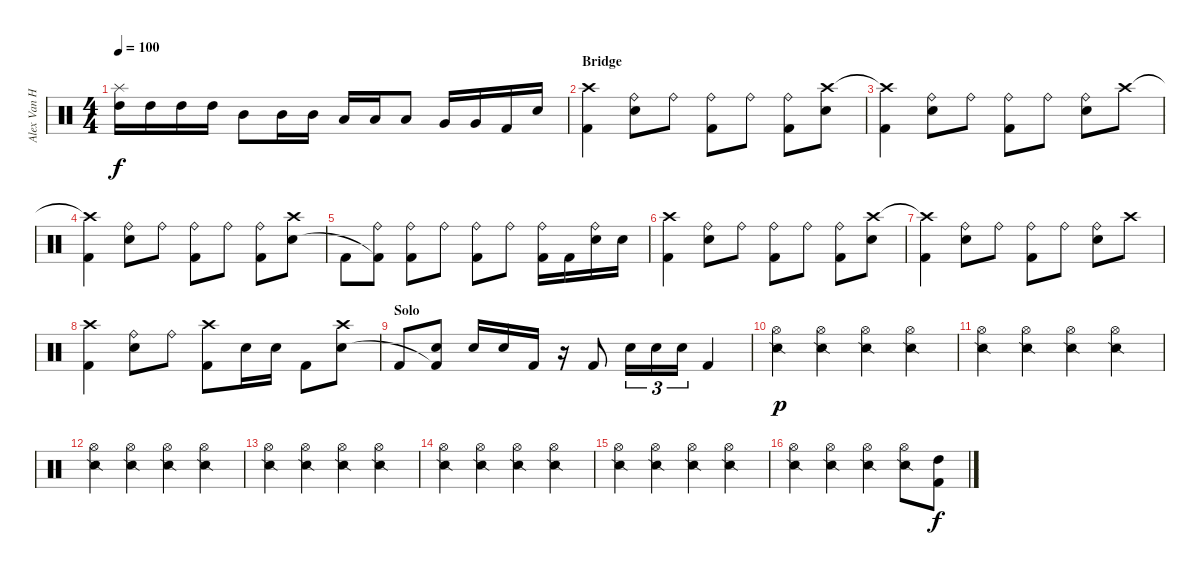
\track ("Alex Van Halen" "Alex Van H") {instrument percussion}
\staff {score}
\articulation defaults
\ts (4 4)
\tempo 100
\clef neutral
\ks c
("High Tom (hit)" "Splash (hit)").16{dy f} "High Tom (hit)".16 "High Tom (hit)".16 "High Tom (hit)".16 "Mid Tom (hit)".8 "Mid Tom (hit)".16 "Mid Tom (hit)".16 "Low Tom (hit)".16 "Low Tom (hit)".16 "Low Tom (hit)".8 "Very Low Tom (hit)".16 "Very Low Tom (hit)".16 "Kick (hit) 2".16 "Snare (hit) 2".16 |
\section ("" "Bridge")
("Crash high (hit)" "Kick (hit) 2").4 ("Ride (bell)" "Snare (hit) 2").8 "Ride (bell)".8 ("Ride (bell)" "Kick (hit) 2").8 "Ride (bell)".8 ("Ride (bell)" "Kick (hit) 2").8 ("Crash high (hit)" "Snare (hit) 2").8 |
("Crash high (hit)"{t} "Kick (hit) 2").4 ("Ride (bell)" "Snare (hit) 2").8 "Ride (bell)".8 ("Ride (bell)" "Kick (hit) 2").8 "Ride (bell)".8 ("Ride (bell)" "Snare (hit) 2").8 "Crash high (hit)".8 |
("Crash high (hit)"{t} "Kick (hit) 2").4 ("Ride (bell)" "Snare (hit) 2").8 "Ride (bell)".8 ("Ride (bell)" "Kick (hit) 2").8 "Ride (bell)".8 ("Ride (bell)" "Kick (hit) 2").8 ("Crash high (hit)" "Snare (hit) 2").8 |
"Kick (hit) 2".8 ("Ride (bell)" "Kick (hit) 2"{t}).8 ("Ride (bell)" "Kick (hit) 2").8 "Ride (bell)".8 ("Ride (bell)" "Kick (hit) 2").8 "Ride (bell)".8 ("Ride (bell)" "Kick (hit) 2").16 "Kick (hit) 2".16 ("Ride (bell)" "Snare (hit) 2").16 "Snare (hit) 2".16 |
("Crash high (hit)" "Kick (hit) 2").4 ("Ride (bell)" "Snare (hit) 2").8 "Ride (bell)".8 ("Ride (bell)" "Kick (hit) 2").8 "Ride (bell)".8 ("Ride (bell)" "Kick (hit) 2").8 ("Crash high (hit)" "Snare (hit) 2").8 |
("Crash high (hit)"{t} "Kick (hit) 2").4 ("Ride (bell)" "Snare (hit) 2").8 "Ride (bell)".8 ("Ride (bell)" "Kick (hit) 2").8 "Ride (bell)".8 ("Ride (bell)" "Snare (hit) 2").8 "Crash high (hit)".8 |
("Crash high (hit)" "Kick (hit) 2").4 ("Ride (bell)" "Snare (hit) 2").8 "Ride (bell)".8 ("Crash high (hit)" "Kick (hit) 2").8 "Snare (hit) 2".16 "Snare (hit) 2".16 "Kick (hit) 2".8 ("Crash high (hit)" "Snare (hit) 2").8 |
\section ("" "Solo")
"Kick (hit) 2".8 ("Snare (hit) 2" "Kick (hit) 2"{t}).8 "Electric Snare (hit)".16 "Electric Snare (hit)".16 "Kick (hit) 2".16 r.16 "Kick (hit) 2".8 "Snare (hit) 2".16{tu (3 2)} "Snare (hit) 2".16{tu (3 2)} "Snare (hit) 2".16{tu (3 2)} "Kick (hit) 2".4 |
("Snare (side stick) 2" "Hi-Hat (open)").4{dy p} ("Snare (side stick) 2" "Hi-Hat (open)").4 ("Snare (side stick) 2" "Hi-Hat (open)").4 ("Snare (side stick) 2" "Hi-Hat (open)").4 |
("Snare (side stick) 2" "Hi-Hat (open)").4 ("Snare (side stick) 2" "Hi-Hat (open)").4 ("Snare (side stick) 2" "Hi-Hat (open)").4 ("Snare (side stick) 2" "Hi-Hat (open)").4 |
("Snare (side stick) 2" "Hi-Hat (open)").4 ("Snare (side stick) 2" "Hi-Hat (open)").4 ("Snare (side stick) 2" "Hi-Hat (open)").4 ("Snare (side stick) 2" "Hi-Hat (open)").4 |
("Snare (side stick) 2" "Hi-Hat (open)").4 ("Snare (side stick) 2" "Hi-Hat (open)").4 ("Snare (side stick) 2" "Hi-Hat (open)").4 ("Snare (side stick) 2" "Hi-Hat (open)").4 |
("Snare (side stick) 2" "Hi-Hat (open)").4 ("Snare (side stick) 2" "Hi-Hat (open)").4 ("Snare (side stick) 2" "Hi-Hat (open)").4 ("Snare (side stick) 2" "Hi-Hat (open)").4 |
("Snare (side stick) 2" "Hi-Hat (open)").4 ("Snare (side stick) 2" "Hi-Hat (open)").4 ("Snare (side stick) 2" "Hi-Hat (open)").4 ("Snare (side stick) 2" "Hi-Hat (open)").4 |
("Snare (side stick) 2" "Hi-Hat (open)").4 ("Snare (side stick) 2" "Hi-Hat (open)").4 ("Snare (side stick) 2" "Hi-Hat (open)").4 ("Snare (side stick) 2" "Hi-Hat (open)").8 ("High Tom (hit)" "Kick (hit) 2").8{dy f}
